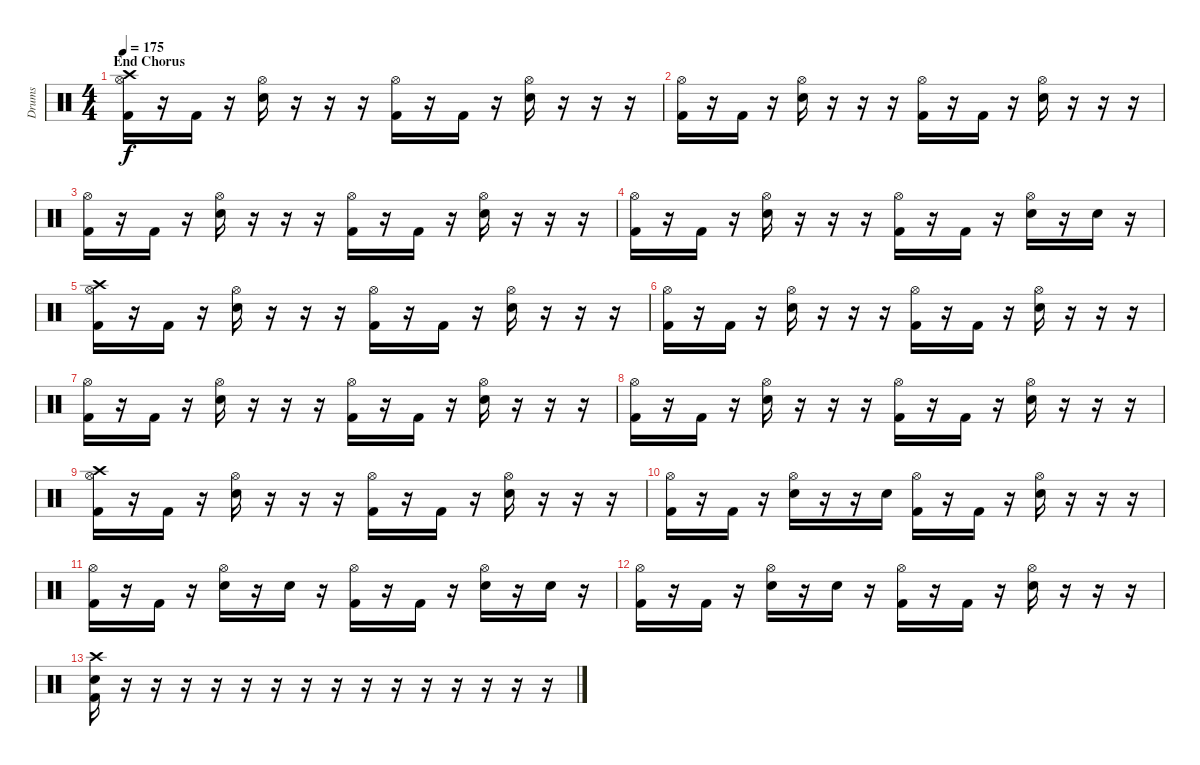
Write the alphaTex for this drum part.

\track ("Drums" "Drums") {instrument percussion}
\staff {score}
\articulation defaults
\ts (4 4)
\section ("" "End Chorus")
\tempo 175
\clef neutral
\ks c
("Crash high (hit)" "Hi-Hat (open)" "Kick (hit) 2").16{dy f} r.16 "Kick (hit) 2".16 r.16 ("Hi-Hat (open)" "Snare (hit) 2").16 r.16 r.16 r.16 ("Hi-Hat (open)" "Kick (hit) 2").16 r.16 "Kick (hit) 2".16 r.16 ("Hi-Hat (open)" "Snare (hit) 2").16 r.16 r.16 r.16 |
("Hi-Hat (open)" "Kick (hit) 2").16 r.16 "Kick (hit) 2".16 r.16 ("Hi-Hat (open)" "Snare (hit) 2").16 r.16 r.16 r.16 ("Hi-Hat (open)" "Kick (hit) 2").16 r.16 "Kick (hit) 2".16 r.16 ("Hi-Hat (open)" "Snare (hit) 2").16 r.16 r.16 r.16 |
("Hi-Hat (open)" "Kick (hit) 2").16 r.16 "Kick (hit) 2".16 r.16 ("Hi-Hat (open)" "Snare (hit) 2").16 r.16 r.16 r.16 ("Hi-Hat (open)" "Kick (hit) 2").16 r.16 "Kick (hit) 2".16 r.16 ("Hi-Hat (open)" "Snare (hit) 2").16 r.16 r.16 r.16 |
("Hi-Hat (open)" "Kick (hit) 2").16 r.16 "Kick (hit) 2".16 r.16 ("Hi-Hat (open)" "Snare (hit) 2").16 r.16 r.16 r.16 ("Hi-Hat (open)" "Kick (hit) 2").16 r.16 "Kick (hit) 2".16 r.16 ("Hi-Hat (open)" "Snare (hit) 2").16 r.16 "Snare (hit) 2".16 r.16 |
("Crash high (hit)" "Hi-Hat (open)" "Kick (hit) 2").16 r.16 "Kick (hit) 2".16 r.16 ("Hi-Hat (open)" "Snare (hit) 2").16 r.16 r.16 r.16 ("Hi-Hat (open)" "Kick (hit) 2").16 r.16 "Kick (hit) 2".16 r.16 ("Hi-Hat (open)" "Snare (hit) 2").16 r.16 r.16 r.16 |
("Hi-Hat (open)" "Kick (hit) 2").16 r.16 "Kick (hit) 2".16 r.16 ("Hi-Hat (open)" "Snare (hit) 2").16 r.16 r.16 r.16 ("Hi-Hat (open)" "Kick (hit) 2").16 r.16 "Kick (hit) 2".16 r.16 ("Hi-Hat (open)" "Snare (hit) 2").16 r.16 r.16 r.16 |
("Hi-Hat (open)" "Kick (hit) 2").16 r.16 "Kick (hit) 2".16 r.16 ("Hi-Hat (open)" "Snare (hit) 2").16 r.16 r.16 r.16 ("Hi-Hat (open)" "Kick (hit) 2").16 r.16 "Kick (hit) 2".16 r.16 ("Hi-Hat (open)" "Snare (hit) 2").16 r.16 r.16 r.16 |
("Hi-Hat (open)" "Kick (hit) 2").16 r.16 "Kick (hit) 2".16 r.16 ("Hi-Hat (open)" "Snare (hit) 2").16 r.16 r.16 r.16 ("Hi-Hat (open)" "Kick (hit) 2").16 r.16 "Kick (hit) 2".16 r.16 ("Hi-Hat (open)" "Snare (hit) 2").16 r.16 r.16 r.16 |
("Crash high (hit)" "Hi-Hat (open)" "Kick (hit) 2").16 r.16 "Kick (hit) 2".16 r.16 ("Hi-Hat (open)" "Snare (hit) 2").16 r.16 r.16 r.16 ("Hi-Hat (open)" "Kick (hit) 2").16 r.16 "Kick (hit) 2".16 r.16 ("Hi-Hat (open)" "Snare (hit) 2").16 r.16 r.16 r.16 |
("Hi-Hat (open)" "Kick (hit) 2").16 r.16 "Kick (hit) 2".16 r.16 ("Hi-Hat (open)" "Snare (hit) 2").16 r.16 r.16 "Snare (hit) 2".16 ("Hi-Hat (open)" "Kick (hit) 2").16 r.16 "Kick (hit) 2".16 r.16 ("Hi-Hat (open)" "Snare (hit) 2").16 r.16 r.16 r.16 |
("Hi-Hat (open)" "Kick (hit) 2").16 r.16 "Kick (hit) 2".16 r.16 ("Hi-Hat (open)" "Snare (hit) 2").16 r.16 "Snare (hit) 2".16 r.16 ("Hi-Hat (open)" "Kick (hit) 2").16 r.16 "Kick (hit) 2".16 r.16 ("Hi-Hat (open)" "Snare (hit) 2").16 r.16 "Snare (hit) 2".16 r.16 |
("Hi-Hat (open)" "Kick (hit) 2").16 r.16 "Kick (hit) 2".16 r.16 ("Hi-Hat (open)" "Snare (hit) 2").16 r.16 "Snare (hit) 2".16 r.16 ("Hi-Hat (open)" "Kick (hit) 2").16 r.16 "Kick (hit) 2".16 r.16 ("Hi-Hat (open)" "Snare (hit) 2").16 r.16 r.16 r.16 |
("Crash high (hit)" "Snare (hit) 2" "Kick (hit) 2").16 r.16 r.16 r.16 r.16 r.16 r.16 r.16 r.16 r.16 r.16 r.16 r.16 r.16 r.16 r.16
